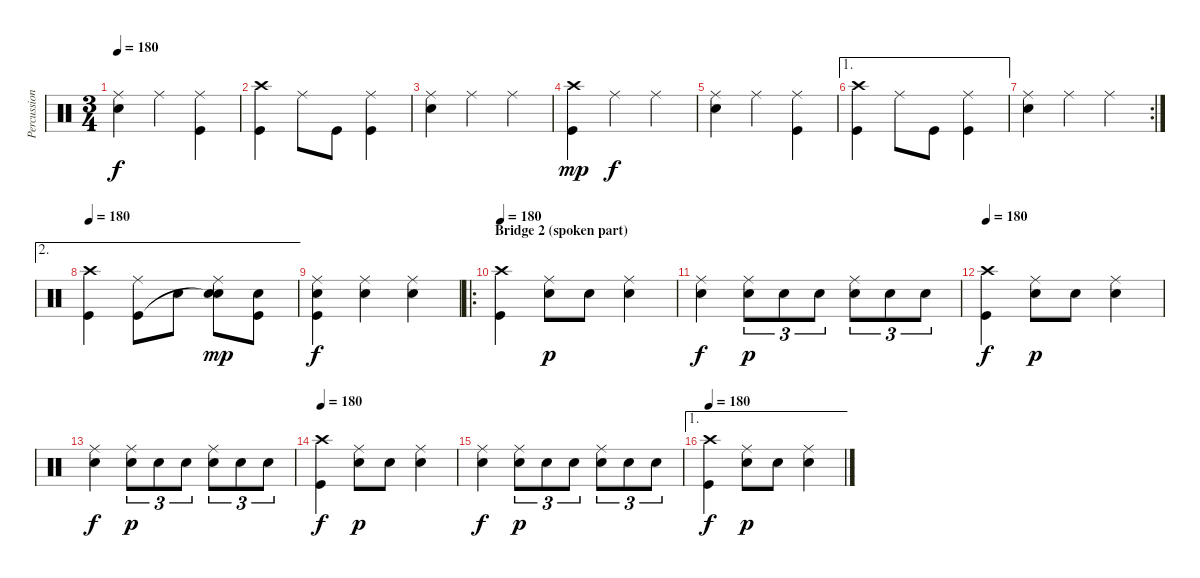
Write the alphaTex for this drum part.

\track ("Percussion" "Percussion") {instrument percussion}
\staff {score}
\articulation defaults
\ts (3 4)
\tempo 180
\clef neutral
\ks c
("Ride (middle)" "Electric Snare (hit)").4{dy f} "Ride (middle)".4 ("Ride (middle)" "Kick (hit)").4 |
("Crash high (hit)" "Kick (hit)").4 "Ride (middle)".8 "Kick (hit)".8 ("Ride (middle)" "Kick (hit)").4 |
("Ride (middle)" "Electric Snare (hit)").4 "Ride (middle)".4 "Ride (middle)".4 |
("Crash high (hit)" "Kick (hit)").4{dy mp} "Ride (middle)".4{dy f} "Ride (middle)".4 |
("Ride (middle)" "Electric Snare (hit)").4 "Ride (middle)".4 ("Ride (middle)" "Kick (hit)").4 |
\ae 1
("Crash high (hit)" "Kick (hit)").4 "Ride (middle)".8 "Kick (hit)".8 ("Ride (middle)" "Kick (hit)").4 |
\rc 2
("Ride (middle)" "Electric Snare (hit)").4 "Ride (middle)".4 "Ride (middle)".4 |
\ae 2
\tempo 180
("Crash high (hit)" "Kick (hit)").4 ("Ride (middle)" "Kick (hit)").8 "Electric Snare (hit)".8 ("Ride (middle)" "Snare (hit)"{t} "Snare (hit) 2").8{dy mp} ("Snare (hit) 2" "Kick (hit)").8 |
("Ride (middle)" "Electric Snare (hit)" "Kick (hit)").4{dy f} ("Ride (middle)" "Electric Snare (hit)").4 ("Ride (middle)" "Electric Snare (hit)").4 |
\ro
\section ("" "Bridge 2 (spoken part)")
\tempo 180
("Crash high (hit)" "Kick (hit)").4 ("Ride (middle)" "Snare (hit) 2").8{dy p} "Snare (hit) 2".8 ("Ride (middle)" "Snare (hit) 2").4 |
("Ride (middle)" "Electric Snare (hit)").4{dy f} ("Ride (middle)" "Snare (hit) 2").8{tu (3 2) dy p} "Snare (hit) 2".8{tu (3 2)} "Snare (hit) 2".8{tu (3 2)} ("Ride (middle)" "Snare (hit) 2").8{tu (3 2)} "Snare (hit) 2".8{tu (3 2)} "Snare (hit) 2".8{tu (3 2)} |
\tempo 180
("Crash high (hit)" "Kick (hit)").4{dy f} ("Ride (middle)" "Snare (hit) 2").8{dy p} "Snare (hit) 2".8 ("Ride (middle)" "Snare (hit) 2").4 |
("Ride (middle)" "Electric Snare (hit)").4{dy f} ("Ride (middle)" "Snare (hit) 2").8{tu (3 2) dy p} "Snare (hit) 2".8{tu (3 2)} "Snare (hit) 2".8{tu (3 2)} ("Ride (middle)" "Snare (hit) 2").8{tu (3 2)} "Snare (hit) 2".8{tu (3 2)} "Snare (hit) 2".8{tu (3 2)} |
\tempo 180
("Crash high (hit)" "Kick (hit)").4{dy f} ("Ride (middle)" "Snare (hit) 2").8{dy p} "Snare (hit) 2".8 ("Ride (middle)" "Snare (hit) 2").4 |
("Ride (middle)" "Electric Snare (hit)").4{dy f} ("Ride (middle)" "Snare (hit) 2").8{tu (3 2) dy p} "Snare (hit) 2".8{tu (3 2)} "Snare (hit) 2".8{tu (3 2)} ("Ride (middle)" "Snare (hit) 2").8{tu (3 2)} "Snare (hit) 2".8{tu (3 2)} "Snare (hit) 2".8{tu (3 2)} |
\ae 1
\tempo 180
("Crash high (hit)" "Kick (hit)").4{dy f} ("Ride (middle)" "Snare (hit) 2").8{dy p} "Snare (hit) 2".8 ("Ride (middle)" "Snare (hit) 2").4
